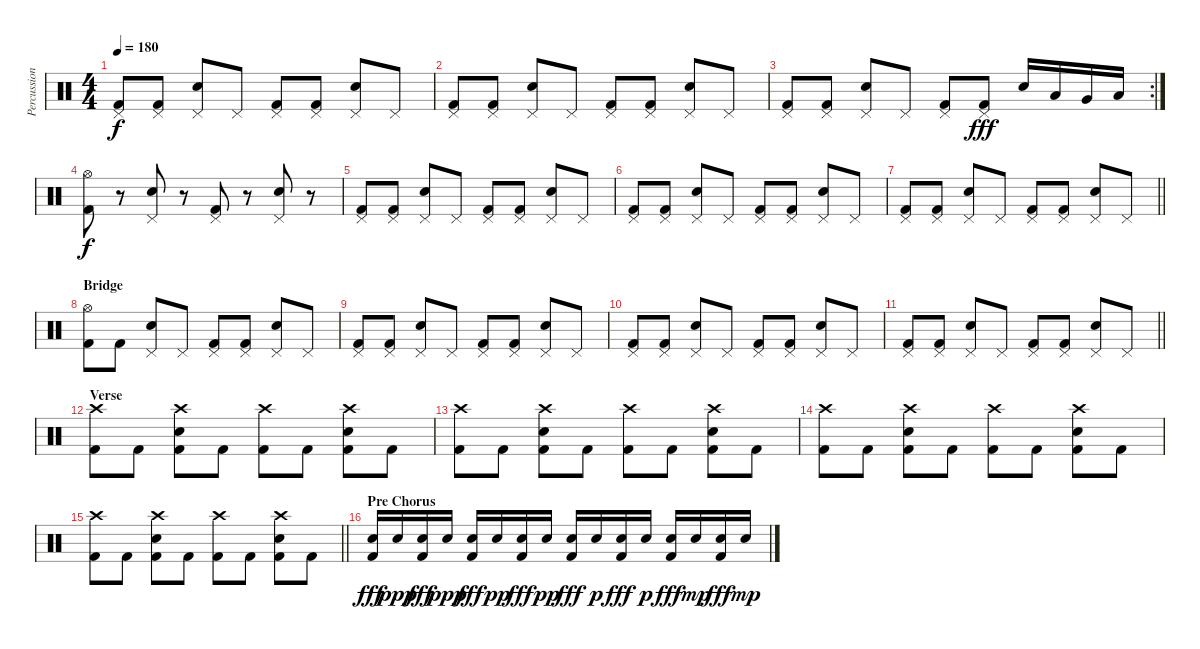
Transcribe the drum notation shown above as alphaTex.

\track ("Percussion" "Percussion") {instrument percussion}
\staff {score}
\articulation defaults
\ts (4 4)
\tempo 180
\clef neutral
\ks c
("Pedal Hi-Hat (hit)" "Kick (hit) 2").8{dy f} ("Pedal Hi-Hat (hit)" "Kick (hit) 2").8 ("Pedal Hi-Hat (hit)" "Electric Snare (hit)").8 "Pedal Hi-Hat (hit)".8 ("Pedal Hi-Hat (hit)" "Kick (hit) 2").8 ("Pedal Hi-Hat (hit)" "Kick (hit) 2").8 ("Pedal Hi-Hat (hit)" "Electric Snare (hit)").8 "Pedal Hi-Hat (hit)".8 |
("Pedal Hi-Hat (hit)" "Kick (hit) 2").8 ("Pedal Hi-Hat (hit)" "Kick (hit) 2").8 ("Pedal Hi-Hat (hit)" "Electric Snare (hit)").8 "Pedal Hi-Hat (hit)".8 ("Pedal Hi-Hat (hit)" "Kick (hit) 2").8 ("Pedal Hi-Hat (hit)" "Kick (hit) 2").8 ("Pedal Hi-Hat (hit)" "Electric Snare (hit)").8 "Pedal Hi-Hat (hit)".8 |
\rc 2
("Pedal Hi-Hat (hit)" "Kick (hit) 2").8 ("Pedal Hi-Hat (hit)" "Kick (hit) 2").8 ("Pedal Hi-Hat (hit)" "Electric Snare (hit)").8 "Pedal Hi-Hat (hit)".8 ("Pedal Hi-Hat (hit)" "Kick (hit) 2").8 ("Pedal Hi-Hat (hit)" "Kick (hit) 2").8{dy fff} "Electric Snare (hit)".16 "Low Tom (hit)".16 "Very Low Tom (hit)".16 "Low Floor Tom (hit)".16 |
("Hi-Hat (open)" "Kick (hit) 2").8{dy f} r.8 ("Pedal Hi-Hat (hit)" "Electric Snare (hit)").8 r.8 ("Pedal Hi-Hat (hit)" "Kick (hit) 2").8 r.8 ("Pedal Hi-Hat (hit)" "Electric Snare (hit)").8 r.8 |
("Pedal Hi-Hat (hit)" "Kick (hit) 2").8 ("Pedal Hi-Hat (hit)" "Kick (hit) 2").8 ("Pedal Hi-Hat (hit)" "Electric Snare (hit)").8 "Pedal Hi-Hat (hit)".8 ("Pedal Hi-Hat (hit)" "Kick (hit) 2").8 ("Pedal Hi-Hat (hit)" "Kick (hit) 2").8 ("Pedal Hi-Hat (hit)" "Electric Snare (hit)").8 "Pedal Hi-Hat (hit)".8 |
("Pedal Hi-Hat (hit)" "Kick (hit) 2").8 ("Pedal Hi-Hat (hit)" "Kick (hit) 2").8 ("Pedal Hi-Hat (hit)" "Electric Snare (hit)").8 "Pedal Hi-Hat (hit)".8 ("Pedal Hi-Hat (hit)" "Kick (hit) 2").8 ("Pedal Hi-Hat (hit)" "Kick (hit) 2").8 ("Pedal Hi-Hat (hit)" "Electric Snare (hit)").8 "Pedal Hi-Hat (hit)".8 |
\barLineRight lightlight
("Pedal Hi-Hat (hit)" "Kick (hit) 2").8 ("Pedal Hi-Hat (hit)" "Kick (hit) 2").8 ("Pedal Hi-Hat (hit)" "Electric Snare (hit)").8 "Pedal Hi-Hat (hit)".8 ("Pedal Hi-Hat (hit)" "Kick (hit) 2").8 ("Pedal Hi-Hat (hit)" "Kick (hit) 2").8 ("Pedal Hi-Hat (hit)" "Electric Snare (hit)").8 "Pedal Hi-Hat (hit)".8 |
\section ("" "Bridge")
("Hi-Hat (open)" "Kick (hit) 2").8 "Kick (hit) 2".8 ("Pedal Hi-Hat (hit)" "Electric Snare (hit)").8 "Pedal Hi-Hat (hit)".8 ("Pedal Hi-Hat (hit)" "Kick (hit) 2").8 ("Pedal Hi-Hat (hit)" "Kick (hit) 2").8 ("Pedal Hi-Hat (hit)" "Electric Snare (hit)").8 "Pedal Hi-Hat (hit)".8 |
("Pedal Hi-Hat (hit)" "Kick (hit) 2").8 ("Pedal Hi-Hat (hit)" "Kick (hit) 2").8 ("Pedal Hi-Hat (hit)" "Electric Snare (hit)").8 "Pedal Hi-Hat (hit)".8 ("Pedal Hi-Hat (hit)" "Kick (hit) 2").8 ("Pedal Hi-Hat (hit)" "Kick (hit) 2").8 ("Pedal Hi-Hat (hit)" "Electric Snare (hit)").8 "Pedal Hi-Hat (hit)".8 |
("Pedal Hi-Hat (hit)" "Kick (hit) 2").8 ("Pedal Hi-Hat (hit)" "Kick (hit) 2").8 ("Pedal Hi-Hat (hit)" "Electric Snare (hit)").8 "Pedal Hi-Hat (hit)".8 ("Pedal Hi-Hat (hit)" "Kick (hit) 2").8 ("Pedal Hi-Hat (hit)" "Kick (hit) 2").8 ("Pedal Hi-Hat (hit)" "Electric Snare (hit)").8 "Pedal Hi-Hat (hit)".8 |
\barLineRight lightlight
("Pedal Hi-Hat (hit)" "Kick (hit) 2").8 ("Pedal Hi-Hat (hit)" "Kick (hit) 2").8 ("Pedal Hi-Hat (hit)" "Electric Snare (hit)").8 "Pedal Hi-Hat (hit)".8 ("Pedal Hi-Hat (hit)" "Kick (hit) 2").8 ("Pedal Hi-Hat (hit)" "Kick (hit) 2").8 ("Pedal Hi-Hat (hit)" "Electric Snare (hit)").8 "Pedal Hi-Hat (hit)".8 |
\section ("" "Verse")
("Crash high (hit)" "Kick (hit) 2").8 "Kick (hit) 2".8 ("Crash high (hit)" "Electric Snare (hit)" "Kick (hit) 2").8 "Kick (hit) 2".8 ("Crash high (hit)" "Kick (hit) 2").8 "Kick (hit) 2".8 ("Crash high (hit)" "Electric Snare (hit)" "Kick (hit) 2").8 "Kick (hit) 2".8 |
("Crash high (hit)" "Kick (hit) 2").8 "Kick (hit) 2".8 ("Crash high (hit)" "Electric Snare (hit)" "Kick (hit) 2").8 "Kick (hit) 2".8 ("Crash high (hit)" "Kick (hit) 2").8 "Kick (hit) 2".8 ("Crash high (hit)" "Electric Snare (hit)" "Kick (hit) 2").8 "Kick (hit) 2".8 |
("Crash high (hit)" "Kick (hit) 2").8 "Kick (hit) 2".8 ("Crash high (hit)" "Electric Snare (hit)" "Kick (hit) 2").8 "Kick (hit) 2".8 ("Crash high (hit)" "Kick (hit) 2").8 "Kick (hit) 2".8 ("Crash high (hit)" "Electric Snare (hit)" "Kick (hit) 2").8 "Kick (hit) 2".8 |
\barLineRight lightlight
("Crash high (hit)" "Kick (hit) 2").8 "Kick (hit) 2".8 ("Crash high (hit)" "Electric Snare (hit)" "Kick (hit) 2").8 "Kick (hit) 2".8 ("Crash high (hit)" "Kick (hit) 2").8 "Kick (hit) 2".8 ("Crash high (hit)" "Electric Snare (hit)" "Kick (hit) 2").8 "Kick (hit) 2".8 |
\section ("" "Pre Chorus")
("Electric Snare (hit)" "Kick (hit) 2").16{dy fff} "Electric Snare (hit)".16{dy ppp} ("Electric Snare (hit)" "Kick (hit) 2").16{dy fff} "Electric Snare (hit)".16{dy ppp} ("Electric Snare (hit)" "Kick (hit) 2").16{dy fff} "Electric Snare (hit)".16{dy pp} ("Electric Snare (hit)" "Kick (hit) 2").16{dy fff} "Electric Snare (hit)".16{dy pp} ("Electric Snare (hit)" "Kick (hit) 2").16{dy fff} "Electric Snare (hit)".16{dy p} ("Electric Snare (hit)" "Kick (hit) 2").16{dy fff} "Electric Snare (hit)".16{dy p} ("Electric Snare (hit)" "Kick (hit) 2").16{dy fff} "Electric Snare (hit)".16{dy mp} ("Electric Snare (hit)" "Kick (hit) 2").16{dy fff} "Electric Snare (hit)".16{dy mp}
